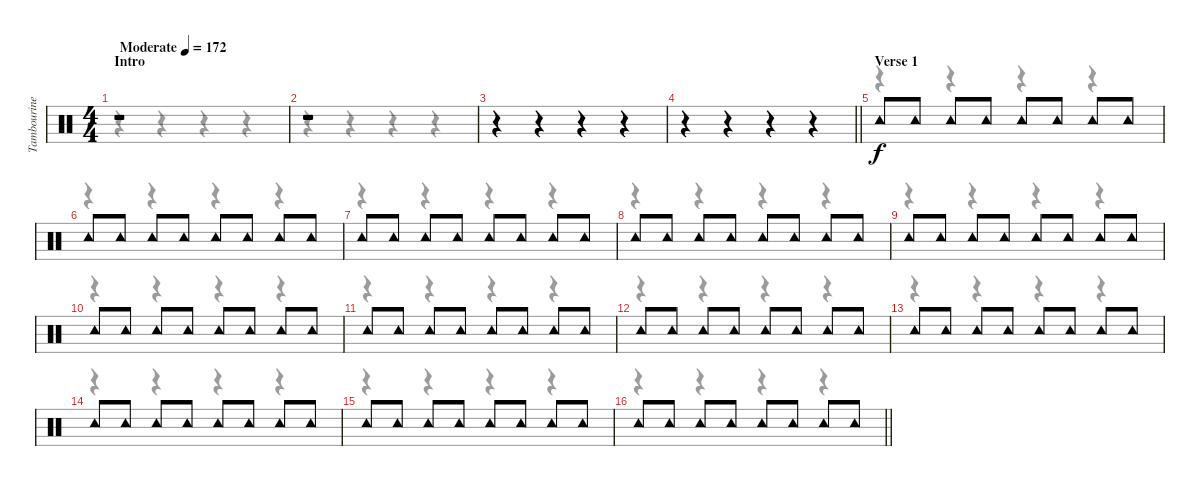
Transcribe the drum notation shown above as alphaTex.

\track ("Tambourine" "Tambourine") {instrument percussion}
\staff {score}
\articulation defaults
\voice
\ts (4 4)
\section ("" "Intro")
\tempo (172 "Moderate")
\clef neutral
\ks c
r.1{dy f} |
r.1 |
r.4 r.4 r.4 r.4 |
\barLineRight lightlight
r.4 r.4 r.4 r.4 |
\section ("" "Verse 1")
"Tambourine (hit)".8 "Tambourine (hit)".8 "Tambourine (hit)".8 "Tambourine (hit)".8 "Tambourine (hit)".8 "Tambourine (hit)".8 "Tambourine (hit)".8 "Tambourine (hit)".8 |
"Tambourine (hit)".8 "Tambourine (hit)".8 "Tambourine (hit)".8 "Tambourine (hit)".8 "Tambourine (hit)".8 "Tambourine (hit)".8 "Tambourine (hit)".8 "Tambourine (hit)".8 |
"Tambourine (hit)".8 "Tambourine (hit)".8 "Tambourine (hit)".8 "Tambourine (hit)".8 "Tambourine (hit)".8 "Tambourine (hit)".8 "Tambourine (hit)".8 "Tambourine (hit)".8 |
"Tambourine (hit)".8 "Tambourine (hit)".8 "Tambourine (hit)".8 "Tambourine (hit)".8 "Tambourine (hit)".8 "Tambourine (hit)".8 "Tambourine (hit)".8 "Tambourine (hit)".8 |
"Tambourine (hit)".8 "Tambourine (hit)".8 "Tambourine (hit)".8 "Tambourine (hit)".8 "Tambourine (hit)".8 "Tambourine (hit)".8 "Tambourine (hit)".8 "Tambourine (hit)".8 |
"Tambourine (hit)".8 "Tambourine (hit)".8 "Tambourine (hit)".8 "Tambourine (hit)".8 "Tambourine (hit)".8 "Tambourine (hit)".8 "Tambourine (hit)".8 "Tambourine (hit)".8 |
"Tambourine (hit)".8 "Tambourine (hit)".8 "Tambourine (hit)".8 "Tambourine (hit)".8 "Tambourine (hit)".8 "Tambourine (hit)".8 "Tambourine (hit)".8 "Tambourine (hit)".8 |
"Tambourine (hit)".8 "Tambourine (hit)".8 "Tambourine (hit)".8 "Tambourine (hit)".8 "Tambourine (hit)".8 "Tambourine (hit)".8 "Tambourine (hit)".8 "Tambourine (hit)".8 |
"Tambourine (hit)".8 "Tambourine (hit)".8 "Tambourine (hit)".8 "Tambourine (hit)".8 "Tambourine (hit)".8 "Tambourine (hit)".8 "Tambourine (hit)".8 "Tambourine (hit)".8 |
"Tambourine (hit)".8 "Tambourine (hit)".8 "Tambourine (hit)".8 "Tambourine (hit)".8 "Tambourine (hit)".8 "Tambourine (hit)".8 "Tambourine (hit)".8 "Tambourine (hit)".8 |
"Tambourine (hit)".8 "Tambourine (hit)".8 "Tambourine (hit)".8 "Tambourine (hit)".8 "Tambourine (hit)".8 "Tambourine (hit)".8 "Tambourine (hit)".8 "Tambourine (hit)".8 |
\barLineRight lightlight "Tambourine (hit)".8 "Tambourine (hit)".8 "Tambourine (hit)".8 "Tambourine (hit)".8 "Tambourine (hit)".8 "Tambourine (hit)".8 "Tambourine (hit)".8 "Tambourine (hit)".8
\voice
\clef neutral
\ottava regular
\simile none
\ks c
r.4{dy f} r.4 r.4 r.4 |
r.4 r.4 r.4 r.4 |
r.4 r.4 r.4 r.4 |
\barLineRight lightlight
r.4 r.4 r.4 r.4 |
r.4 r.4 r.4 r.4 |
r.4 r.4 r.4 r.4 |
r.4 r.4 r.4 r.4 |
r.4 r.4 r.4 r.4 |
r.4 r.4 r.4 r.4 |
r.4 r.4 r.4 r.4 |
r.4 r.4 r.4 r.4 |
r.4 r.4 r.4 r.4 |
r.4 r.4 r.4 r.4 |
r.4 r.4 r.4 r.4 |
r.4 r.4 r.4 r.4 |
\barLineRight lightlight
r.4 r.4 r.4 r.4
